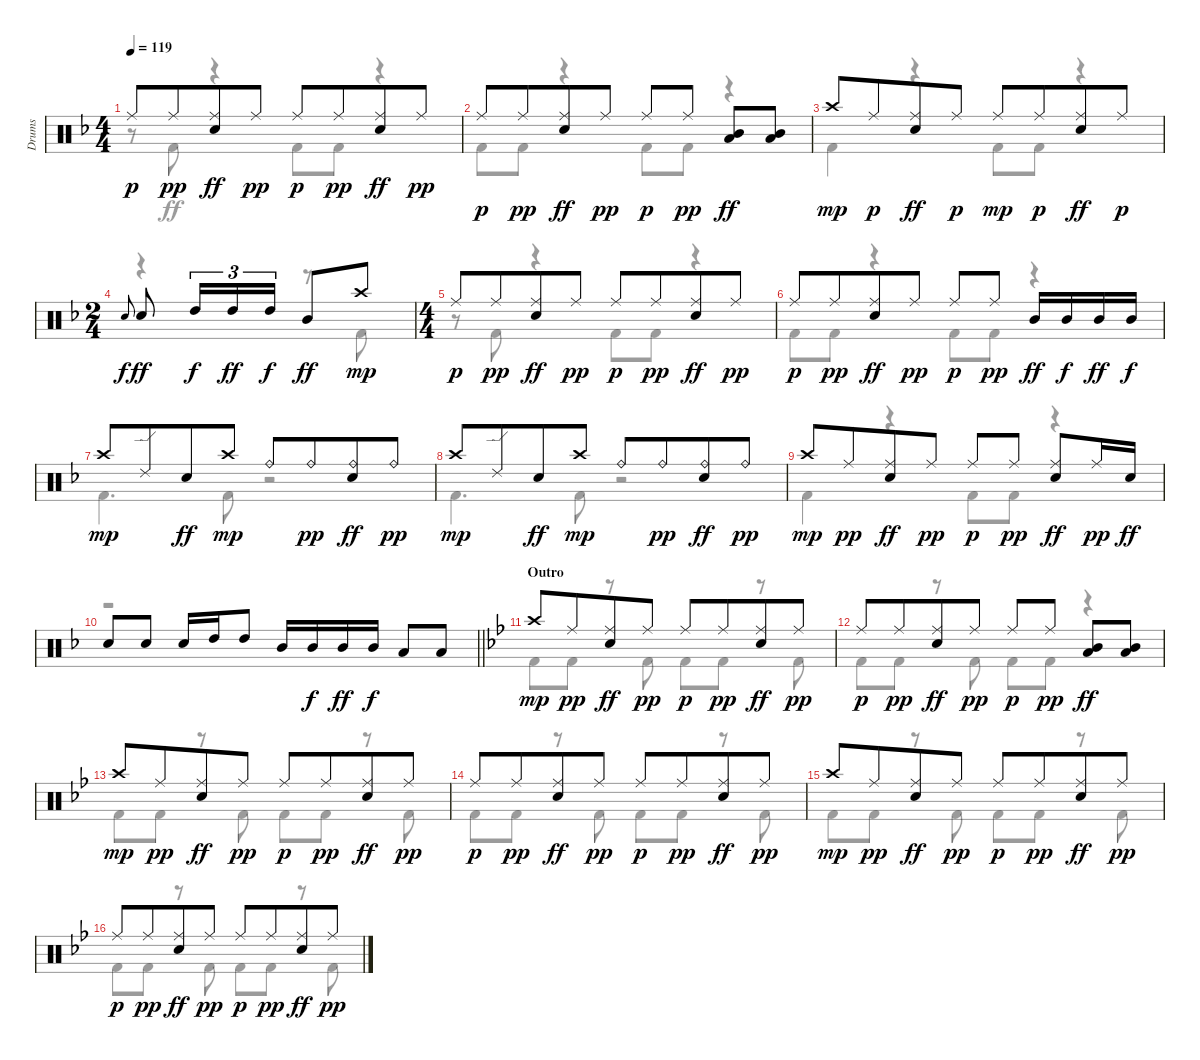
\track ("Drums" "Drums") {instrument percussion}
\staff {score}
\articulation defaults
\voice
\ts (4 4)
\tempo 119
\clef neutral
\ks f "Ride (middle)".8{dy p} "Ride (middle)".8{dy pp beam merge}
("Ride (middle)" "Electric Snare (hit)").8{dy ff} "Ride (middle)".8{dy pp} "Ride (middle)".8{dy p} "Ride (middle)".8{dy pp beam merge} ("Ride (middle)" "Electric Snare (hit)").8{dy ff} "Ride (middle)".8{dy pp} |
"Ride (middle)".8{dy p} "Ride (middle)".8{dy pp beam merge} ("Ride (middle)" "Electric Snare (hit)").8{dy ff} "Ride (middle)".8{dy pp} "Ride (middle)".8{dy p} "Ride (middle)".8{dy pp beam split} ("Mid Tom (hit)" "Low Tom (hit)").8{dy ff} ("Mid Tom (hit)" "Low Tom (hit)").8 |
"Crash high (hit)".8{dy mp} "Ride (middle)".8{dy p beam merge} ("Ride (middle)" "Electric Snare (hit)").8{dy ff} "Ride (middle)".8{dy p} "Ride (middle)".8{dy mp} "Ride (middle)".8{dy p beam merge} ("Ride (middle)" "Electric Snare (hit)").8{dy ff} "Ride (middle)".8{dy p} |
\ts (2 4)
"Electric Snare (hit)".8{gr onbeat dy f} "Electric Snare (hit)".8{dy ff} "High Tom (hit)".16{tu (3 2) dy f} "High Tom (hit)".16{tu (3 2) dy ff} "High Tom (hit)".16{tu (3 2) dy f} "Mid Tom (hit)".8{dy ff} "Crash high (hit)".8{dy mp} |
\ts (4 4)
"Ride (middle)".8{dy p} "Ride (middle)".8{dy pp beam merge} ("Ride (middle)" "Electric Snare (hit)").8{dy ff} "Ride (middle)".8{dy pp} "Ride (middle)".8{dy p} "Ride (middle)".8{dy pp beam merge} ("Ride (middle)" "Electric Snare (hit)").8{dy ff} "Ride (middle)".8{dy pp} |
"Ride (middle)".8{dy p} "Ride (middle)".8{dy pp beam merge} ("Ride (middle)" "Electric Snare (hit)").8{dy ff} "Ride (middle)".8{dy pp} "Ride (middle)".8{dy p} "Ride (middle)".8{dy pp} "Mid Tom (hit)".16{dy ff} "Mid Tom (hit)".16{dy f} "Mid Tom (hit)".16{dy ff} "Mid Tom (hit)".16{dy f} |
"Crash high (hit)".8{dy mp} "Ride (edge) 2".8{beam merge} "Electric Snare (hit)".8{dy ff} "Crash high (hit)".8{dy mp} "Ride (bell)".8 "Ride (bell)".8{dy pp beam merge} ("Ride (bell)" "Electric Snare (hit)").8{dy ff} "Ride (bell)".8{dy pp} |
"Crash high (hit)".8{dy mp} "Ride (edge) 2".8{beam merge} "Electric Snare (hit)".8{dy ff} "Crash high (hit)".8{dy mp} "Ride (bell)".8 "Ride (bell)".8{dy pp beam merge} ("Ride (bell)" "Electric Snare (hit)").8{dy ff} "Ride (bell)".8{dy pp} |
"Crash high (hit)".8{dy mp} "Ride (middle)".8{dy pp beam merge} ("Ride (middle)" "Electric Snare (hit)").8{dy ff} "Ride (middle)".8{dy pp} "Ride (middle)".8{dy p} "Ride (middle)".8{dy pp} ("Ride (middle)" "Electric Snare (hit)").8{dy ff} "Ride (middle)".16{dy pp} "Electric Snare (hit)".16{dy ff} |
\barLineRight lightlight "Electric Snare (hit)".8 "Electric Snare (hit)".8 "Electric Snare (hit)".16 "High Tom (hit)".16 "High Tom (hit)".8 "Mid Tom (hit)".16 "Mid Tom (hit)".16{dy f} "Mid Tom (hit)".16{dy ff} "Mid Tom (hit)".16{dy f} "Low Tom (hit)".8 "Low Tom (hit)".8
|
\section ("" "Outro")
\ks bb "Crash high (hit)".8{dy mp} "Ride (middle)".8{dy pp beam merge}
("Ride (middle)" "Electric Snare (hit)").8{dy ff} "Ride (middle)".8{dy pp} "Ride (middle)".8{dy p} "Ride (middle)".8{dy pp beam merge} ("Ride (middle)" "Electric Snare (hit)").8{dy ff} "Ride (middle)".8{dy pp} |
"Ride (middle)".8{dy p} "Ride (middle)".8{dy pp beam merge} ("Ride (middle)" "Electric Snare (hit)").8{dy ff} "Ride (middle)".8{dy pp} "Ride (middle)".8{dy p} "Ride (middle)".8{dy pp beam split} ("Mid Tom (hit)" "Low Tom (hit)").8{dy ff} ("Mid Tom (hit)" "Low Tom (hit)").8 |
"Crash high (hit)".8{dy mp} "Ride (middle)".8{dy pp beam merge} ("Ride (middle)" "Electric Snare (hit)").8{dy ff} "Ride (middle)".8{dy pp} "Ride (middle)".8{dy p} "Ride (middle)".8{dy pp beam merge} ("Ride (middle)" "Electric Snare (hit)").8{dy ff} "Ride (middle)".8{dy pp} |
"Ride (middle)".8{dy p} "Ride (middle)".8{dy pp beam merge} ("Ride (middle)" "Electric Snare (hit)").8{dy ff} "Ride (middle)".8{dy pp} "Ride (middle)".8{dy p} "Ride (middle)".8{dy pp beam merge} ("Ride (middle)" "Electric Snare (hit)").8{dy ff} "Ride (middle)".8{dy pp} |
"Crash high (hit)".8{dy mp} "Ride (middle)".8{dy pp beam merge} ("Ride (middle)" "Electric Snare (hit)").8{dy ff} "Ride (middle)".8{dy pp} "Ride (middle)".8{dy p} "Ride (middle)".8{dy pp beam merge} ("Ride (middle)" "Electric Snare (hit)").8{dy ff} "Ride (middle)".8{dy pp} |
"Ride (middle)".8{dy p} "Ride (middle)".8{dy pp beam merge} ("Ride (middle)" "Electric Snare (hit)").8{dy ff} "Ride (middle)".8{dy pp} "Ride (middle)".8{dy p} "Ride (middle)".8{dy pp beam merge} ("Ride (middle)" "Electric Snare (hit)").8{dy ff} "Ride (middle)".8{dy pp}
\voice
\clef neutral
\ottava regular
\simile none
\ks f
r.8{dy ff} "Kick (hit) 2".8 r.4 "Kick (hit) 2".8 "Kick (hit) 2".8 r.4 |
"Kick (hit) 2".8 "Kick (hit) 2".8 r.4 "Kick (hit) 2".8 "Kick (hit) 2".8 r.4 |
"Kick (hit) 2".4 r.4 "Kick (hit) 2".8 "Kick (hit) 2".8 r.4 |
r.4 r.8 "Kick (hit) 2".8 |
r.8 "Kick (hit) 2".8 r.4 "Kick (hit) 2".8 "Kick (hit) 2".8 r.4 |
"Kick (hit) 2".8 "Kick (hit) 2".8 r.4 "Kick (hit) 2".8 "Kick (hit) 2".8 r.4 |
"Kick (hit) 2".4{d} "Kick (hit) 2".8 r.2 |
"Kick (hit) 2".4{d} "Kick (hit) 2".8 r.2 |
"Kick (hit) 2".4 r.4 "Kick (hit) 2".8 "Kick (hit) 2".8 r.4 |
\barLineRight lightlight
r.1 |
\ks bb "Kick (hit) 2".8 "Kick (hit) 2".8
r.8 "Kick (hit) 2".8 "Kick (hit) 2".8 "Kick (hit) 2".8 r.8 "Kick (hit) 2".8 |
"Kick (hit) 2".8 "Kick (hit) 2".8 r.8 "Kick (hit) 2".8 "Kick (hit) 2".8 "Kick (hit) 2".8 r.4 |
"Kick (hit) 2".8 "Kick (hit) 2".8 r.8 "Kick (hit) 2".8 "Kick (hit) 2".8 "Kick (hit) 2".8 r.8 "Kick (hit) 2".8 |
"Kick (hit) 2".8 "Kick (hit) 2".8 r.8 "Kick (hit) 2".8 "Kick (hit) 2".8 "Kick (hit) 2".8 r.8 "Kick (hit) 2".8 |
"Kick (hit) 2".8 "Kick (hit) 2".8 r.8 "Kick (hit) 2".8 "Kick (hit) 2".8 "Kick (hit) 2".8 r.8 "Kick (hit) 2".8 |
"Kick (hit) 2".8 "Kick (hit) 2".8 r.8 "Kick (hit) 2".8 "Kick (hit) 2".8 "Kick (hit) 2".8 r.8 "Kick (hit) 2".8
